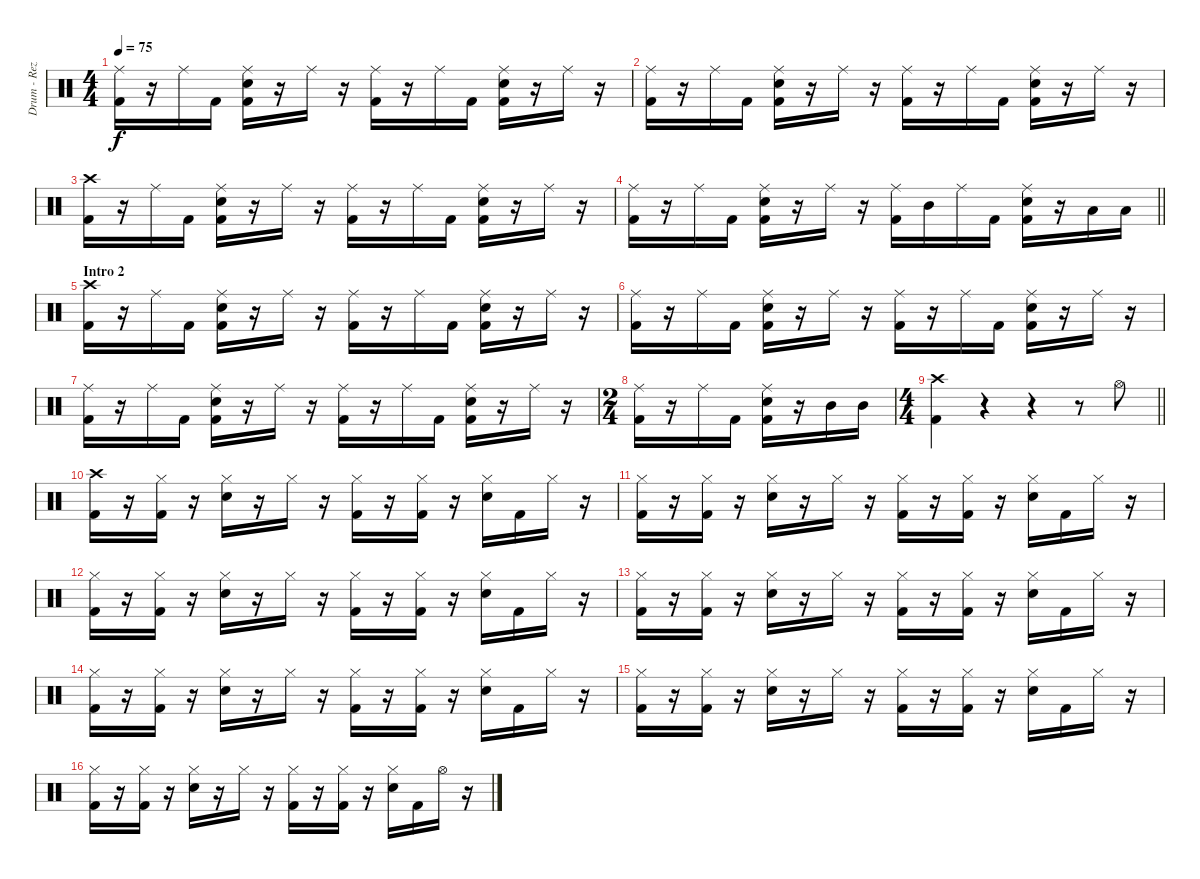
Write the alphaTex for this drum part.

\track ("Drum - Reza" "Drum - Rez") {instrument percussion}
\staff {score}
\articulation defaults
\ts (4 4)
\tempo 75
\clef neutral
\ks c
("Ride (middle)" "Kick (hit) 2").16{dy f} r.16 "Ride (middle)".16 "Kick (hit) 2".16 ("Ride (middle)" "Electric Snare (hit)" "Kick (hit) 2").16 r.16 "Ride (middle)".16 r.16 ("Ride (middle)" "Kick (hit) 2").16 r.16 "Ride (middle)".16 "Kick (hit) 2".16 ("Ride (middle)" "Electric Snare (hit)" "Kick (hit) 2").16 r.16 "Ride (middle)".16 r.16 |
("Ride (middle)" "Kick (hit) 2").16 r.16 "Ride (middle)".16 "Kick (hit) 2".16 ("Ride (middle)" "Electric Snare (hit)" "Kick (hit) 2").16 r.16 "Ride (middle)".16 r.16 ("Ride (middle)" "Kick (hit) 2").16 r.16 "Ride (middle)".16 "Kick (hit) 2".16 ("Ride (middle)" "Electric Snare (hit)" "Kick (hit) 2").16 r.16 "Ride (middle)".16 r.16 |
("Crash high (hit)" "Kick (hit) 2").16 r.16 "Ride (middle)".16 "Kick (hit) 2".16 ("Ride (middle)" "Electric Snare (hit)" "Kick (hit) 2").16 r.16 "Ride (middle)".16 r.16 ("Ride (middle)" "Kick (hit) 2").16 r.16 "Ride (middle)".16 "Kick (hit) 2".16 ("Ride (middle)" "Electric Snare (hit)" "Kick (hit) 2").16 r.16 "Ride (middle)".16 r.16 |
\barLineRight lightlight
("Ride (middle)" "Kick (hit) 2").16 r.16 "Ride (middle)".16 "Kick (hit) 2".16 ("Ride (middle)" "Electric Snare (hit)" "Kick (hit) 2").16 r.16 "Ride (middle)".16 r.16 ("Ride (middle)" "Kick (hit) 2").16 "Mid Tom (hit)".16 "Ride (middle)".16 "Kick (hit) 2".16 ("Ride (middle)" "Electric Snare (hit)" "Kick (hit) 2").16 r.16 "Low Tom (hit)".16 "Low Tom (hit)".16 |
\section ("" "Intro 2")
("Crash high (hit)" "Kick (hit) 2").16 r.16 "Ride (middle)".16 "Kick (hit) 2".16 ("Ride (middle)" "Electric Snare (hit)" "Kick (hit) 2").16 r.16 "Ride (middle)".16 r.16 ("Ride (middle)" "Kick (hit) 2").16 r.16 "Ride (middle)".16 "Kick (hit) 2".16 ("Ride (middle)" "Electric Snare (hit)" "Kick (hit) 2").16 r.16 "Ride (middle)".16 r.16 |
("Ride (middle)" "Kick (hit) 2").16 r.16 "Ride (middle)".16 "Kick (hit) 2".16 ("Ride (middle)" "Electric Snare (hit)" "Kick (hit) 2").16 r.16 "Ride (middle)".16 r.16 ("Ride (middle)" "Kick (hit) 2").16 r.16 "Ride (middle)".16 "Kick (hit) 2".16 ("Ride (middle)" "Electric Snare (hit)" "Kick (hit) 2").16 r.16 "Ride (middle)".16 r.16 |
("Ride (middle)" "Kick (hit) 2").16 r.16 "Ride (middle)".16 "Kick (hit) 2".16 ("Ride (middle)" "Electric Snare (hit)" "Kick (hit) 2").16 r.16 "Ride (middle)".16 r.16 ("Ride (middle)" "Kick (hit) 2").16 r.16 "Ride (middle)".16 "Kick (hit) 2".16 ("Ride (middle)" "Electric Snare (hit)" "Kick (hit) 2").16 r.16 "Ride (middle)".16 r.16 |
\ts (2 4)
("Ride (middle)" "Kick (hit) 2").16 r.16 "Ride (middle)".16 "Kick (hit) 2".16 ("Ride (middle)" "Electric Snare (hit)" "Kick (hit) 2").16 r.16 "Mid Tom (hit)".16 "Mid Tom (hit)".16 |
\ts (4 4)
\barLineRight lightlight
("Crash high (hit)" "Kick (hit) 2").4 r.4 r.4 r.8 "Hi-Hat (open)".8 |
("Crash high (hit)" "Kick (hit) 2").16 r.16 ("Hi-Hat (closed)" "Kick (hit) 2").16 r.16 ("Hi-Hat (closed)" "Electric Snare (hit)").16 r.16 "Hi-Hat (closed)".16 r.16 ("Hi-Hat (closed)" "Kick (hit) 2").16 r.16 ("Hi-Hat (closed)" "Kick (hit) 2").16 r.16 ("Hi-Hat (closed)" "Electric Snare (hit)").16 "Kick (hit) 2".16 "Hi-Hat (closed)".16 r.16 |
("Hi-Hat (closed)" "Kick (hit) 2").16 r.16 ("Hi-Hat (closed)" "Kick (hit) 2").16 r.16 ("Hi-Hat (closed)" "Electric Snare (hit)").16 r.16 "Hi-Hat (closed)".16 r.16 ("Hi-Hat (closed)" "Kick (hit) 2").16 r.16 ("Hi-Hat (closed)" "Kick (hit) 2").16 r.16 ("Hi-Hat (closed)" "Electric Snare (hit)").16 "Kick (hit) 2".16 "Hi-Hat (closed)".16 r.16 |
("Hi-Hat (closed)" "Kick (hit) 2").16 r.16 ("Hi-Hat (closed)" "Kick (hit) 2").16 r.16 ("Hi-Hat (closed)" "Electric Snare (hit)").16 r.16 "Hi-Hat (closed)".16 r.16 ("Hi-Hat (closed)" "Kick (hit) 2").16 r.16 ("Hi-Hat (closed)" "Kick (hit) 2").16 r.16 ("Hi-Hat (closed)" "Electric Snare (hit)").16 "Kick (hit) 2".16 "Hi-Hat (closed)".16 r.16 |
("Hi-Hat (closed)" "Kick (hit) 2").16 r.16 ("Hi-Hat (closed)" "Kick (hit) 2").16 r.16 ("Hi-Hat (closed)" "Electric Snare (hit)").16 r.16 "Hi-Hat (closed)".16 r.16 ("Hi-Hat (closed)" "Kick (hit) 2").16 r.16 ("Hi-Hat (closed)" "Kick (hit) 2").16 r.16 ("Hi-Hat (closed)" "Electric Snare (hit)").16 "Kick (hit) 2".16 "Hi-Hat (closed)".16 r.16 |
("Hi-Hat (closed)" "Kick (hit) 2").16 r.16 ("Hi-Hat (closed)" "Kick (hit) 2").16 r.16 ("Hi-Hat (closed)" "Electric Snare (hit)").16 r.16 "Hi-Hat (closed)".16 r.16 ("Hi-Hat (closed)" "Kick (hit) 2").16 r.16 ("Hi-Hat (closed)" "Kick (hit) 2").16 r.16 ("Hi-Hat (closed)" "Electric Snare (hit)").16 "Kick (hit) 2".16 "Hi-Hat (closed)".16 r.16 |
("Hi-Hat (closed)" "Kick (hit) 2").16 r.16 ("Hi-Hat (closed)" "Kick (hit) 2").16 r.16 ("Hi-Hat (closed)" "Electric Snare (hit)").16 r.16 "Hi-Hat (closed)".16 r.16 ("Hi-Hat (closed)" "Kick (hit) 2").16 r.16 ("Hi-Hat (closed)" "Kick (hit) 2").16 r.16 ("Hi-Hat (closed)" "Electric Snare (hit)").16 "Kick (hit) 2".16 "Hi-Hat (closed)".16 r.16 |
("Hi-Hat (closed)" "Kick (hit) 2").16 r.16 ("Hi-Hat (closed)" "Kick (hit) 2").16 r.16 ("Hi-Hat (closed)" "Electric Snare (hit)").16 r.16 "Hi-Hat (closed)".16 r.16 ("Hi-Hat (closed)" "Kick (hit) 2").16 r.16 ("Hi-Hat (closed)" "Kick (hit) 2").16 r.16 ("Hi-Hat (closed)" "Electric Snare (hit)").16 "Kick (hit) 2".16 "Hi-Hat (open)".16 r.16
